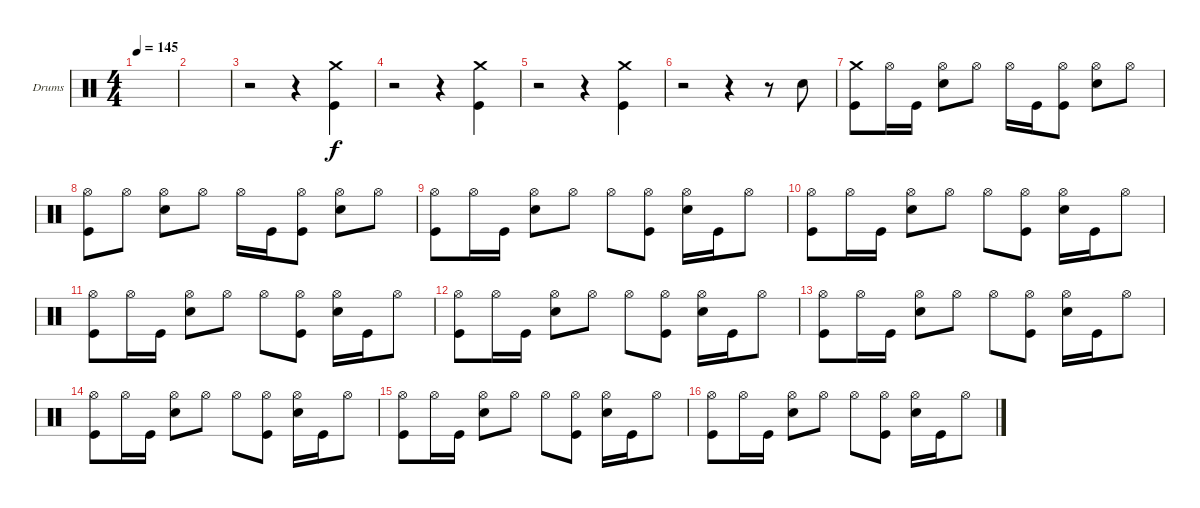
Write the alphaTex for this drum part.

\bracketExtendMode groupsimilarinstruments
\firstSystemTrackNameOrientation horizontal
\otherSystemsTrackNameOrientation horizontal
\track ("Drumkit" "Drums") {instrument percussion}
\staff {score}
\articulation defaults
\ts (4 4)
\tempo 145
\clef neutral
\ks c
|
|
r.2 r.4 ("Crash medium (hit)" "Kick (hit)").4 |
r.2 r.4 ("Crash medium (hit)" "Kick (hit)").4 |
r.2 r.4 ("Crash medium (hit)" "Kick (hit)").4 |
r.2 r.4 r.8 "Snare (hit) 2".8 |
("Crash medium (hit)" "Kick (hit)").8 "Hi-Hat (open)".16 "Kick (hit)".16 ("Hi-Hat (open)" "Snare (hit) 2").8 "Hi-Hat (open)".8 "Hi-Hat (open)".16 "Kick (hit)".16 ("Hi-Hat (open)" "Kick (hit)").8 ("Hi-Hat (open)" "Snare (hit) 2").8 "Hi-Hat (open)".8 |
("Hi-Hat (open)" "Kick (hit)").8 "Hi-Hat (open)".8 ("Hi-Hat (open)" "Snare (hit) 2").8 "Hi-Hat (open)".8 "Hi-Hat (open)".16 "Kick (hit)".16 ("Hi-Hat (open)" "Kick (hit)").8 ("Hi-Hat (open)" "Snare (hit) 2").8 "Hi-Hat (open)".8 |
("Hi-Hat (open)" "Kick (hit)").8 "Hi-Hat (open)".16 "Kick (hit)".16 ("Hi-Hat (open)" "Snare (hit) 2").8 "Hi-Hat (open)".8 "Hi-Hat (open)".8 ("Hi-Hat (open)" "Kick (hit)").8 ("Hi-Hat (open)" "Snare (hit) 2").16 "Kick (hit)".16 "Hi-Hat (open)".8 |
("Hi-Hat (open)" "Kick (hit)").8 "Hi-Hat (open)".16 "Kick (hit)".16 ("Hi-Hat (open)" "Snare (hit) 2").8 "Hi-Hat (open)".8 "Hi-Hat (open)".8 ("Hi-Hat (open)" "Kick (hit)").8 ("Hi-Hat (open)" "Snare (hit) 2").16 "Kick (hit)".16 "Hi-Hat (open)".8 |
("Hi-Hat (open)" "Kick (hit)").8 "Hi-Hat (open)".16 "Kick (hit)".16 ("Hi-Hat (open)" "Snare (hit) 2").8 "Hi-Hat (open)".8 "Hi-Hat (open)".8 ("Hi-Hat (open)" "Kick (hit)").8 ("Hi-Hat (open)" "Snare (hit) 2").16 "Kick (hit)".16 "Hi-Hat (open)".8 |
("Hi-Hat (open)" "Kick (hit)").8 "Hi-Hat (open)".16 "Kick (hit)".16 ("Hi-Hat (open)" "Snare (hit) 2").8 "Hi-Hat (open)".8 "Hi-Hat (open)".8 ("Hi-Hat (open)" "Kick (hit)").8 ("Hi-Hat (open)" "Snare (hit) 2").16 "Kick (hit)".16 "Hi-Hat (open)".8 |
("Hi-Hat (open)" "Kick (hit)").8 "Hi-Hat (open)".16 "Kick (hit)".16 ("Hi-Hat (open)" "Snare (hit) 2").8 "Hi-Hat (open)".8 "Hi-Hat (open)".8 ("Hi-Hat (open)" "Kick (hit)").8 ("Hi-Hat (open)" "Snare (hit) 2").16 "Kick (hit)".16 "Hi-Hat (open)".8 |
("Hi-Hat (open)" "Kick (hit)").8 "Hi-Hat (open)".16 "Kick (hit)".16 ("Hi-Hat (open)" "Snare (hit) 2").8 "Hi-Hat (open)".8 "Hi-Hat (open)".8 ("Hi-Hat (open)" "Kick (hit)").8 ("Hi-Hat (open)" "Snare (hit) 2").16 "Kick (hit)".16 "Hi-Hat (open)".8 |
("Hi-Hat (open)" "Kick (hit)").8 "Hi-Hat (open)".16 "Kick (hit)".16 ("Hi-Hat (open)" "Snare (hit) 2").8 "Hi-Hat (open)".8 "Hi-Hat (open)".8 ("Hi-Hat (open)" "Kick (hit)").8 ("Hi-Hat (open)" "Snare (hit) 2").16 "Kick (hit)".16 "Hi-Hat (open)".8 |
("Hi-Hat (open)" "Kick (hit)").8 "Hi-Hat (open)".16 "Kick (hit)".16 ("Hi-Hat (open)" "Snare (hit) 2").8 "Hi-Hat (open)".8 "Hi-Hat (open)".8 ("Hi-Hat (open)" "Kick (hit)").8 ("Hi-Hat (open)" "Snare (hit) 2").16 "Kick (hit)".16 "Hi-Hat (open)".8
